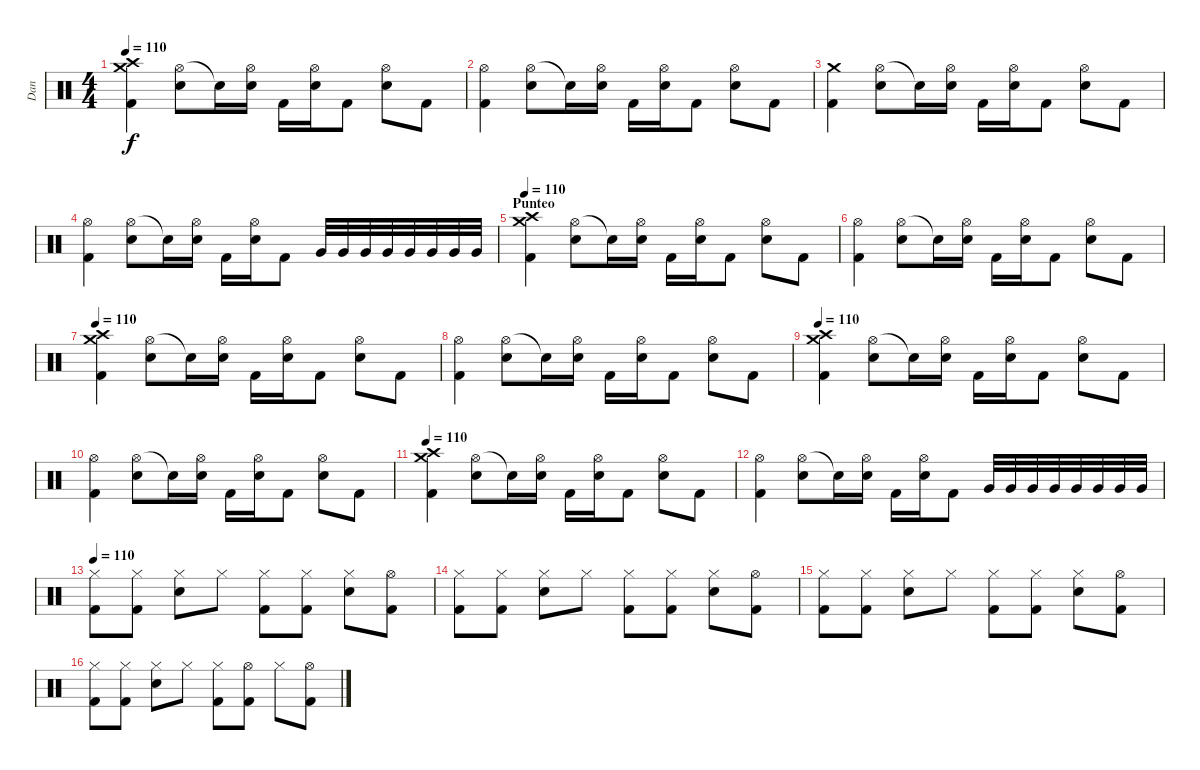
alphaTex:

\track ("Dan" "Dan") {instrument percussion}
\staff {score}
\articulation defaults
\ts (4 4)
\tempo 110
\clef neutral
\ks c
("Crash medium (hit)" "Crash high (hit)" "Kick (hit) 2").4{dy f} ("Hi-Hat (open)" "Snare (hit) 2").8 "Snare (hit) 2"{t}.16 ("Hi-Hat (open)" "Snare (hit) 2").16 "Kick (hit) 2".16 ("Hi-Hat (open)" "Snare (hit) 2").16 "Kick (hit) 2".8 ("Hi-Hat (open)" "Snare (hit) 2").8 "Kick (hit) 2".8 |
("Hi-Hat (open)" "Kick (hit) 2").4 ("Hi-Hat (open)" "Snare (hit) 2").8 "Snare (hit) 2"{t}.16 ("Hi-Hat (open)" "Snare (hit) 2").16 "Kick (hit) 2".16 ("Hi-Hat (open)" "Snare (hit) 2").16 "Kick (hit) 2".8 ("Hi-Hat (open)" "Snare (hit) 2").8 "Kick (hit) 2".8 |
("Crash medium (hit)" "Kick (hit) 2").4 ("Hi-Hat (open)" "Snare (hit) 2").8 "Snare (hit) 2"{t}.16 ("Hi-Hat (open)" "Snare (hit) 2").16 "Kick (hit) 2".16 ("Hi-Hat (open)" "Snare (hit) 2").16 "Kick (hit) 2".8 ("Hi-Hat (open)" "Snare (hit) 2").8 "Kick (hit) 2".8 |
("Hi-Hat (open)" "Kick (hit) 2").4 ("Hi-Hat (open)" "Snare (hit) 2").8 "Snare (hit) 2"{t}.16 ("Hi-Hat (open)" "Snare (hit) 2").16 "Kick (hit) 2".16 ("Hi-Hat (open)" "Snare (hit) 2").16 "Kick (hit) 2".8 "Very Low Tom (hit)".32 "Very Low Tom (hit)".32 "Very Low Tom (hit)".32 "Very Low Tom (hit)".32 "Very Low Tom (hit)".32 "Very Low Tom (hit)".32 "Very Low Tom (hit)".32 "Very Low Tom (hit)".32 |
\section ("" "Punteo")
\tempo 110
("Crash medium (hit)" "Crash high (hit)" "Kick (hit) 2").4 ("Hi-Hat (open)" "Snare (hit) 2").8 "Snare (hit) 2"{t}.16 ("Hi-Hat (open)" "Snare (hit) 2").16 "Kick (hit) 2".16 ("Hi-Hat (open)" "Snare (hit) 2").16 "Kick (hit) 2".8 ("Hi-Hat (open)" "Snare (hit) 2").8 "Kick (hit) 2".8 |
("Hi-Hat (open)" "Kick (hit) 2").4 ("Hi-Hat (open)" "Snare (hit) 2").8 "Snare (hit) 2"{t}.16 ("Hi-Hat (open)" "Snare (hit) 2").16 "Kick (hit) 2".16 ("Hi-Hat (open)" "Snare (hit) 2").16 "Kick (hit) 2".8 ("Hi-Hat (open)" "Snare (hit) 2").8 "Kick (hit) 2".8 |
\tempo 110
("Crash medium (hit)" "Crash high (hit)" "Kick (hit) 2").4 ("Hi-Hat (open)" "Snare (hit) 2").8 "Snare (hit) 2"{t}.16 ("Hi-Hat (open)" "Snare (hit) 2").16 "Kick (hit) 2".16 ("Hi-Hat (open)" "Snare (hit) 2").16 "Kick (hit) 2".8 ("Hi-Hat (open)" "Snare (hit) 2").8 "Kick (hit) 2".8 |
("Hi-Hat (open)" "Kick (hit) 2").4 ("Hi-Hat (open)" "Snare (hit) 2").8 "Snare (hit) 2"{t}.16 ("Hi-Hat (open)" "Snare (hit) 2").16 "Kick (hit) 2".16 ("Hi-Hat (open)" "Snare (hit) 2").16 "Kick (hit) 2".8 ("Hi-Hat (open)" "Snare (hit) 2").8 "Kick (hit) 2".8 |
\tempo 110
("Crash medium (hit)" "Crash high (hit)" "Kick (hit) 2").4 ("Hi-Hat (open)" "Snare (hit) 2").8 "Snare (hit) 2"{t}.16 ("Hi-Hat (open)" "Snare (hit) 2").16 "Kick (hit) 2".16 ("Hi-Hat (open)" "Snare (hit) 2").16 "Kick (hit) 2".8 ("Hi-Hat (open)" "Snare (hit) 2").8 "Kick (hit) 2".8 |
("Hi-Hat (open)" "Kick (hit) 2").4 ("Hi-Hat (open)" "Snare (hit) 2").8 "Snare (hit) 2"{t}.16 ("Hi-Hat (open)" "Snare (hit) 2").16 "Kick (hit) 2".16 ("Hi-Hat (open)" "Snare (hit) 2").16 "Kick (hit) 2".8 ("Hi-Hat (open)" "Snare (hit) 2").8 "Kick (hit) 2".8 |
\tempo 110
("Crash medium (hit)" "Crash high (hit)" "Kick (hit) 2").4 ("Hi-Hat (open)" "Snare (hit) 2").8 "Snare (hit) 2"{t}.16 ("Hi-Hat (open)" "Snare (hit) 2").16 "Kick (hit) 2".16 ("Hi-Hat (open)" "Snare (hit) 2").16 "Kick (hit) 2".8 ("Hi-Hat (open)" "Snare (hit) 2").8 "Kick (hit) 2".8 |
("Hi-Hat (open)" "Kick (hit) 2").4 ("Hi-Hat (open)" "Snare (hit) 2").8 "Snare (hit) 2"{t}.16 ("Hi-Hat (open)" "Snare (hit) 2").16 "Kick (hit) 2".16 ("Hi-Hat (open)" "Snare (hit) 2").16 "Kick (hit) 2".8 "Very Low Tom (hit)".32 "Very Low Tom (hit)".32 "Very Low Tom (hit)".32 "Very Low Tom (hit)".32 "Very Low Tom (hit)".32 "Very Low Tom (hit)".32 "Very Low Tom (hit)".32 "Very Low Tom (hit)".32 |
\tempo 110
("Hi-Hat (closed)" "Kick (hit) 2").8 ("Hi-Hat (closed)" "Kick (hit) 2").8 ("Hi-Hat (closed)" "Snare (hit) 2").8 "Hi-Hat (closed)".8 ("Hi-Hat (closed)" "Kick (hit) 2").8 ("Hi-Hat (closed)" "Kick (hit) 2").8 ("Hi-Hat (closed)" "Snare (hit) 2").8 ("Hi-Hat (open)" "Kick (hit) 2").8 |
("Hi-Hat (closed)" "Kick (hit) 2").8 ("Hi-Hat (closed)" "Kick (hit) 2").8 ("Hi-Hat (closed)" "Snare (hit) 2").8 "Hi-Hat (closed)".8 ("Hi-Hat (closed)" "Kick (hit) 2").8 ("Hi-Hat (closed)" "Kick (hit) 2").8 ("Hi-Hat (closed)" "Snare (hit) 2").8 ("Hi-Hat (open)" "Kick (hit) 2").8 |
("Hi-Hat (closed)" "Kick (hit) 2").8 ("Hi-Hat (closed)" "Kick (hit) 2").8 ("Hi-Hat (closed)" "Snare (hit) 2").8 "Hi-Hat (closed)".8 ("Hi-Hat (closed)" "Kick (hit) 2").8 ("Hi-Hat (closed)" "Kick (hit) 2").8 ("Hi-Hat (closed)" "Snare (hit) 2").8 ("Hi-Hat (open)" "Kick (hit) 2").8 |
("Hi-Hat (closed)" "Kick (hit) 2").8 ("Hi-Hat (closed)" "Kick (hit) 2").8 ("Hi-Hat (closed)" "Snare (hit) 2").8 "Hi-Hat (closed)".8 ("Hi-Hat (closed)" "Kick (hit) 2").8 ("Hi-Hat (open)" "Kick (hit) 2").8 "Hi-Hat (closed)".8 ("Hi-Hat (open)" "Kick (hit) 2").8
